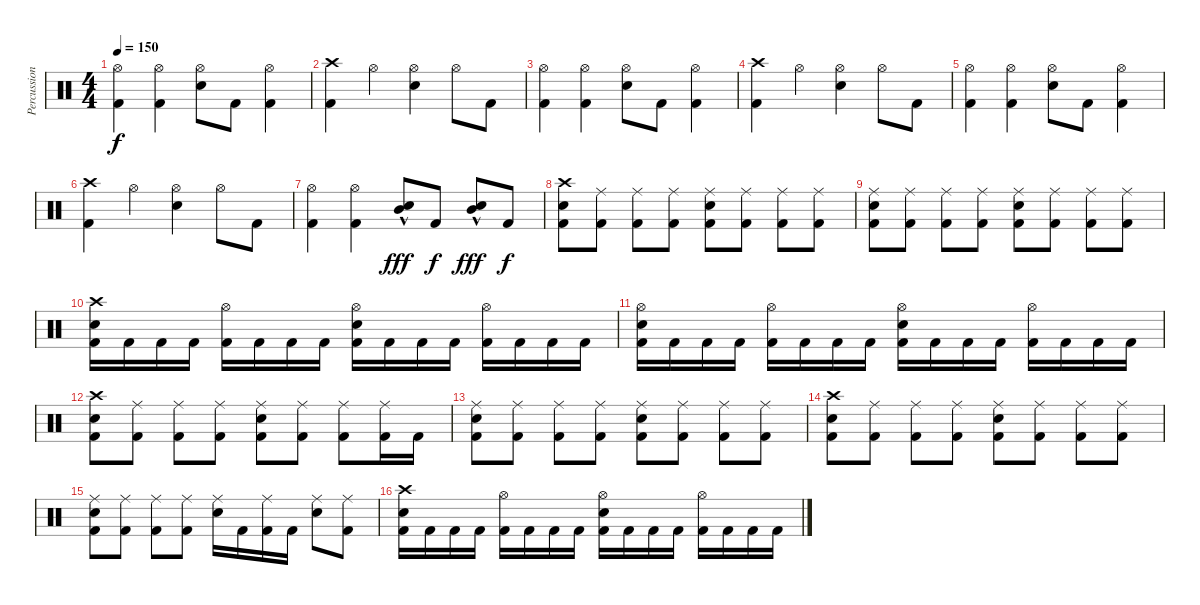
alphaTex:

\track ("Percussion" "Percussion") {instrument percussion}
\staff {score}
\articulation defaults
\ts (4 4)
\tempo 150
\clef neutral
\ks c
("Hi-Hat (open)" "Kick (hit) 2").4{dy f} ("Hi-Hat (open)" "Kick (hit) 2").4 ("Hi-Hat (open)" "Snare (hit) 2").8 "Kick (hit) 2".8 ("Hi-Hat (open)" "Kick (hit) 2").4 |
("Crash high (hit)" "Kick (hit) 2").4 "Hi-Hat (open)".4 ("Hi-Hat (open)" "Snare (hit) 2").4 "Hi-Hat (open)".8 "Kick (hit) 2".8 |
("Hi-Hat (open)" "Kick (hit) 2").4 ("Hi-Hat (open)" "Kick (hit) 2").4 ("Hi-Hat (open)" "Snare (hit) 2").8 "Kick (hit) 2".8 ("Hi-Hat (open)" "Kick (hit) 2").4 |
("Crash high (hit)" "Kick (hit) 2").4 "Hi-Hat (open)".4 ("Hi-Hat (open)" "Snare (hit) 2").4 "Hi-Hat (open)".8 "Kick (hit) 2".8 |
("Hi-Hat (open)" "Kick (hit) 2").4 ("Hi-Hat (open)" "Kick (hit) 2").4 ("Hi-Hat (open)" "Snare (hit) 2").8 "Kick (hit) 2".8 ("Hi-Hat (open)" "Kick (hit) 2").4 |
("Crash high (hit)" "Kick (hit) 2").4 "Hi-Hat (open)".4 ("Hi-Hat (open)" "Snare (hit) 2").4 "Hi-Hat (open)".8 "Kick (hit) 2".8 |
("Hi-Hat (open)" "Kick (hit) 2").4 ("Hi-Hat (open)" "Kick (hit) 2").4 ("Mid Tom (hit)"{hac} "Snare (hit) 2").8{dy fff} "Kick (hit) 2".8{dy f} ("Mid Tom (hit)"{hac} "Snare (hit) 2").8{dy fff} "Kick (hit) 2".8{dy f} |
("Crash high (hit)" "Snare (hit) 2" "Kick (hit) 2").8 ("Ride (middle)" "Kick (hit) 2").8 ("Ride (middle)" "Kick (hit) 2").8 ("Ride (middle)" "Kick (hit) 2").8 ("Ride (middle)" "Snare (hit) 2" "Kick (hit) 2").8 ("Ride (middle)" "Kick (hit) 2").8 ("Ride (middle)" "Kick (hit) 2").8 ("Ride (middle)" "Kick (hit) 2").8 |
("Ride (middle)" "Snare (hit) 2" "Kick (hit) 2").8 ("Ride (middle)" "Kick (hit) 2").8 ("Ride (middle)" "Kick (hit) 2").8 ("Ride (middle)" "Kick (hit) 2").8 ("Ride (middle)" "Snare (hit) 2" "Kick (hit) 2").8 ("Ride (middle)" "Kick (hit) 2").8 ("Ride (middle)" "Kick (hit) 2").8 ("Ride (middle)" "Kick (hit) 2").8 |
("Crash high (hit)" "Snare (hit) 2" "Kick (hit) 2").16 "Kick (hit) 2".16 "Kick (hit) 2".16 "Kick (hit) 2".16 ("Hi-Hat (open)" "Kick (hit) 2").16 "Kick (hit) 2".16 "Kick (hit) 2".16 "Kick (hit) 2".16 ("Hi-Hat (open)" "Snare (hit) 2" "Kick (hit) 2").16 "Kick (hit) 2".16 "Kick (hit) 2".16 "Kick (hit) 2".16 ("Hi-Hat (open)" "Kick (hit) 2").16 "Kick (hit) 2".16 "Kick (hit) 2".16 "Kick (hit) 2".16 |
("Hi-Hat (open)" "Snare (hit) 2" "Kick (hit) 2").16 "Kick (hit) 2".16 "Kick (hit) 2".16 "Kick (hit) 2".16 ("Hi-Hat (open)" "Kick (hit) 2").16 "Kick (hit) 2".16 "Kick (hit) 2".16 "Kick (hit) 2".16 ("Hi-Hat (open)" "Snare (hit) 2" "Kick (hit) 2").16 "Kick (hit) 2".16 "Kick (hit) 2".16 "Kick (hit) 2".16 ("Hi-Hat (open)" "Kick (hit) 2").16 "Kick (hit) 2".16 "Kick (hit) 2".16 "Kick (hit) 2".16 |
("Crash high (hit)" "Snare (hit) 2" "Kick (hit) 2").8 ("Ride (middle)" "Kick (hit) 2").8 ("Ride (middle)" "Kick (hit) 2").8 ("Ride (middle)" "Kick (hit) 2").8 ("Ride (middle)" "Snare (hit) 2" "Kick (hit) 2").8 ("Ride (middle)" "Kick (hit) 2").8 ("Ride (middle)" "Kick (hit) 2").8 ("Ride (middle)" "Kick (hit) 2").16 "Kick (hit) 2".16 |
("Ride (middle)" "Snare (hit) 2" "Kick (hit) 2").8 ("Ride (middle)" "Kick (hit) 2").8 ("Ride (middle)" "Kick (hit) 2").8 ("Ride (middle)" "Kick (hit) 2").8 ("Ride (middle)" "Snare (hit) 2" "Kick (hit) 2").8 ("Ride (middle)" "Kick (hit) 2").8 ("Ride (middle)" "Kick (hit) 2").8 ("Ride (middle)" "Kick (hit) 2").8 |
("Crash high (hit)" "Snare (hit) 2" "Kick (hit) 2").8 ("Ride (middle)" "Kick (hit) 2").8 ("Ride (middle)" "Kick (hit) 2").8 ("Ride (middle)" "Kick (hit) 2").8 ("Ride (middle)" "Snare (hit) 2" "Kick (hit) 2").8 ("Ride (middle)" "Kick (hit) 2").8 ("Ride (middle)" "Kick (hit) 2").8 ("Ride (middle)" "Kick (hit) 2").8 |
("Ride (middle)" "Snare (hit) 2" "Kick (hit) 2").8 ("Ride (middle)" "Kick (hit) 2").8 ("Ride (middle)" "Kick (hit) 2").8 ("Ride (middle)" "Kick (hit) 2").8 ("Ride (middle)" "Snare (hit) 2").16 "Kick (hit) 2".16 ("Ride (middle)" "Kick (hit) 2").16 "Kick (hit) 2".16 ("Ride (middle)" "Snare (hit) 2").8 ("Ride (middle)" "Kick (hit) 2").8 |
("Crash high (hit)" "Snare (hit) 2" "Kick (hit) 2").16 "Kick (hit) 2".16 "Kick (hit) 2".16 "Kick (hit) 2".16 ("Hi-Hat (open)" "Kick (hit) 2").16 "Kick (hit) 2".16 "Kick (hit) 2".16 "Kick (hit) 2".16 ("Hi-Hat (open)" "Snare (hit) 2" "Kick (hit) 2").16 "Kick (hit) 2".16 "Kick (hit) 2".16 "Kick (hit) 2".16 ("Hi-Hat (open)" "Kick (hit) 2").16 "Kick (hit) 2".16 "Kick (hit) 2".16 "Kick (hit) 2".16
